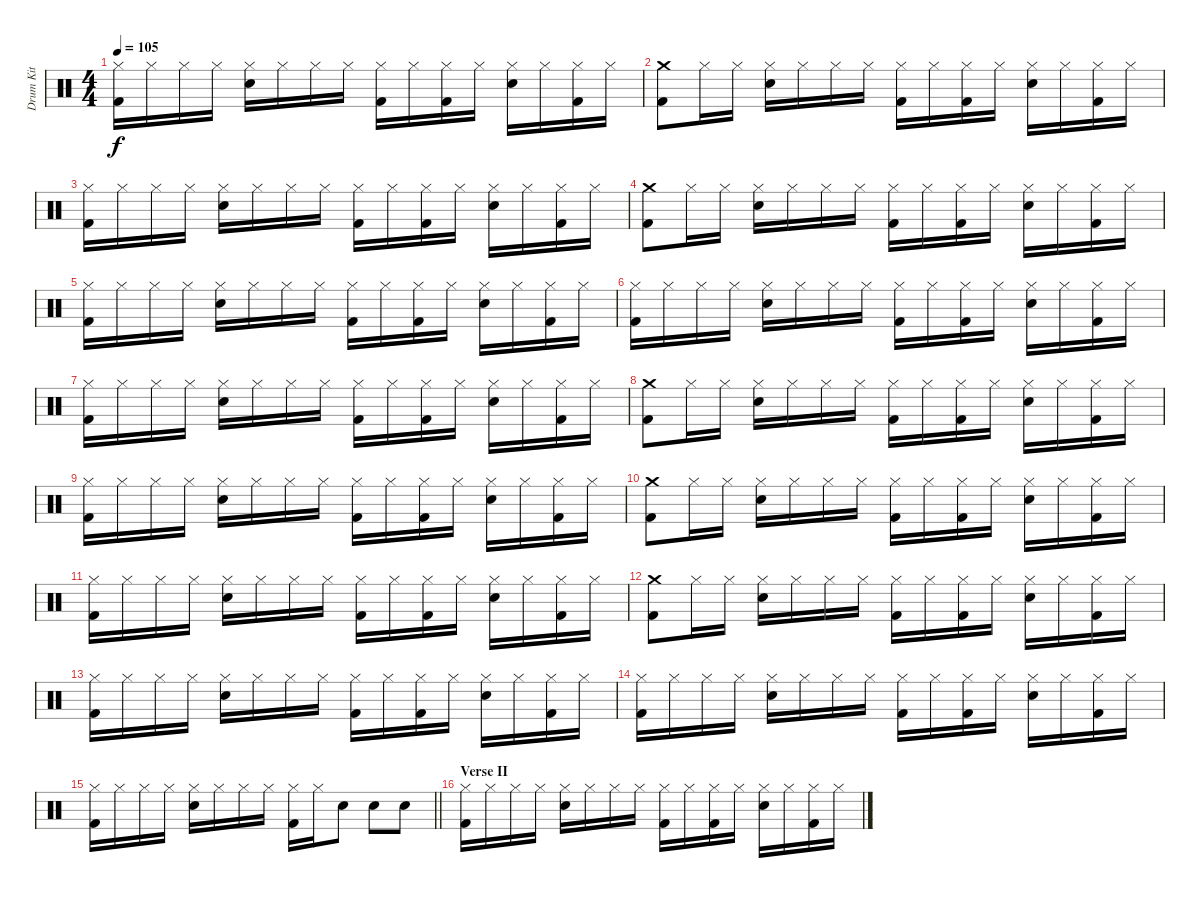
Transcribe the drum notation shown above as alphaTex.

\track ("Drum Kit" "Drum Kit") {instrument percussion}
\staff {score}
\articulation defaults
\ts (4 4)
\tempo 105
\clef neutral
\ks c
("Hi-Hat (closed)" "Kick (hit) 2").16{dy f} "Hi-Hat (closed)".16 "Hi-Hat (closed)".16 "Hi-Hat (closed)".16 ("Hi-Hat (closed)" "Electric Snare (hit)").16 "Hi-Hat (closed)".16 "Hi-Hat (closed)".16 "Hi-Hat (closed)".16 ("Hi-Hat (closed)" "Kick (hit) 2").16 "Hi-Hat (closed)".16 ("Hi-Hat (closed)" "Kick (hit) 2").16 "Hi-Hat (closed)".16 ("Hi-Hat (closed)" "Electric Snare (hit)").16 "Hi-Hat (closed)".16 ("Hi-Hat (closed)" "Kick (hit) 2").16 "Hi-Hat (closed)".16 |
("Crash medium (hit)" "Kick (hit) 2").8 "Hi-Hat (closed)".16 "Hi-Hat (closed)".16 ("Hi-Hat (closed)" "Electric Snare (hit)").16 "Hi-Hat (closed)".16 "Hi-Hat (closed)".16 "Hi-Hat (closed)".16 ("Hi-Hat (closed)" "Kick (hit) 2").16 "Hi-Hat (closed)".16 ("Hi-Hat (closed)" "Kick (hit) 2").16 "Hi-Hat (closed)".16 ("Hi-Hat (closed)" "Electric Snare (hit)").16 "Hi-Hat (closed)".16 ("Hi-Hat (closed)" "Kick (hit) 2").16 "Hi-Hat (closed)".16 |
("Hi-Hat (closed)" "Kick (hit) 2").16 "Hi-Hat (closed)".16 "Hi-Hat (closed)".16 "Hi-Hat (closed)".16 ("Hi-Hat (closed)" "Electric Snare (hit)").16 "Hi-Hat (closed)".16 "Hi-Hat (closed)".16 "Hi-Hat (closed)".16 ("Hi-Hat (closed)" "Kick (hit) 2").16 "Hi-Hat (closed)".16 ("Hi-Hat (closed)" "Kick (hit) 2").16 "Hi-Hat (closed)".16 ("Hi-Hat (closed)" "Electric Snare (hit)").16 "Hi-Hat (closed)".16 ("Hi-Hat (closed)" "Kick (hit) 2").16 "Hi-Hat (closed)".16 |
("Crash medium (hit)" "Kick (hit) 2").8 "Hi-Hat (closed)".16 "Hi-Hat (closed)".16 ("Hi-Hat (closed)" "Electric Snare (hit)").16 "Hi-Hat (closed)".16 "Hi-Hat (closed)".16 "Hi-Hat (closed)".16 ("Hi-Hat (closed)" "Kick (hit) 2").16 "Hi-Hat (closed)".16 ("Hi-Hat (closed)" "Kick (hit) 2").16 "Hi-Hat (closed)".16 ("Hi-Hat (closed)" "Electric Snare (hit)").16 "Hi-Hat (closed)".16 ("Hi-Hat (closed)" "Kick (hit) 2").16 "Hi-Hat (closed)".16 |
("Hi-Hat (closed)" "Kick (hit) 2").16 "Hi-Hat (closed)".16 "Hi-Hat (closed)".16 "Hi-Hat (closed)".16 ("Hi-Hat (closed)" "Electric Snare (hit)").16 "Hi-Hat (closed)".16 "Hi-Hat (closed)".16 "Hi-Hat (closed)".16 ("Hi-Hat (closed)" "Kick (hit) 2").16 "Hi-Hat (closed)".16 ("Hi-Hat (closed)" "Kick (hit) 2").16 "Hi-Hat (closed)".16 ("Hi-Hat (closed)" "Electric Snare (hit)").16 "Hi-Hat (closed)".16 ("Hi-Hat (closed)" "Kick (hit) 2").16 "Hi-Hat (closed)".16 |
("Hi-Hat (closed)" "Kick (hit) 2").16 "Hi-Hat (closed)".16 "Hi-Hat (closed)".16 "Hi-Hat (closed)".16 ("Hi-Hat (closed)" "Electric Snare (hit)").16 "Hi-Hat (closed)".16 "Hi-Hat (closed)".16 "Hi-Hat (closed)".16 ("Hi-Hat (closed)" "Kick (hit) 2").16 "Hi-Hat (closed)".16 ("Hi-Hat (closed)" "Kick (hit) 2").16 "Hi-Hat (closed)".16 ("Hi-Hat (closed)" "Electric Snare (hit)").16 "Hi-Hat (closed)".16 ("Hi-Hat (closed)" "Kick (hit) 2").16 "Hi-Hat (closed)".16 |
("Hi-Hat (closed)" "Kick (hit) 2").16 "Hi-Hat (closed)".16 "Hi-Hat (closed)".16 "Hi-Hat (closed)".16 ("Hi-Hat (closed)" "Electric Snare (hit)").16 "Hi-Hat (closed)".16 "Hi-Hat (closed)".16 "Hi-Hat (closed)".16 ("Hi-Hat (closed)" "Kick (hit) 2").16 "Hi-Hat (closed)".16 ("Hi-Hat (closed)" "Kick (hit) 2").16 "Hi-Hat (closed)".16 ("Hi-Hat (closed)" "Electric Snare (hit)").16 "Hi-Hat (closed)".16 ("Hi-Hat (closed)" "Kick (hit) 2").16 "Hi-Hat (closed)".16 |
("Crash medium (hit)" "Kick (hit) 2").8 "Hi-Hat (closed)".16 "Hi-Hat (closed)".16 ("Hi-Hat (closed)" "Electric Snare (hit)").16 "Hi-Hat (closed)".16 "Hi-Hat (closed)".16 "Hi-Hat (closed)".16 ("Hi-Hat (closed)" "Kick (hit) 2").16 "Hi-Hat (closed)".16 ("Hi-Hat (closed)" "Kick (hit) 2").16 "Hi-Hat (closed)".16 ("Hi-Hat (closed)" "Electric Snare (hit)").16 "Hi-Hat (closed)".16 ("Hi-Hat (closed)" "Kick (hit) 2").16 "Hi-Hat (closed)".16 |
("Hi-Hat (closed)" "Kick (hit) 2").16 "Hi-Hat (closed)".16 "Hi-Hat (closed)".16 "Hi-Hat (closed)".16 ("Hi-Hat (closed)" "Electric Snare (hit)").16 "Hi-Hat (closed)".16 "Hi-Hat (closed)".16 "Hi-Hat (closed)".16 ("Hi-Hat (closed)" "Kick (hit) 2").16 "Hi-Hat (closed)".16 ("Hi-Hat (closed)" "Kick (hit) 2").16 "Hi-Hat (closed)".16 ("Hi-Hat (closed)" "Electric Snare (hit)").16 "Hi-Hat (closed)".16 ("Hi-Hat (closed)" "Kick (hit) 2").16 "Hi-Hat (closed)".16 |
("Crash medium (hit)" "Kick (hit) 2").8 "Hi-Hat (closed)".16 "Hi-Hat (closed)".16 ("Hi-Hat (closed)" "Electric Snare (hit)").16 "Hi-Hat (closed)".16 "Hi-Hat (closed)".16 "Hi-Hat (closed)".16 ("Hi-Hat (closed)" "Kick (hit) 2").16 "Hi-Hat (closed)".16 ("Hi-Hat (closed)" "Kick (hit) 2").16 "Hi-Hat (closed)".16 ("Hi-Hat (closed)" "Electric Snare (hit)").16 "Hi-Hat (closed)".16 ("Hi-Hat (closed)" "Kick (hit) 2").16 "Hi-Hat (closed)".16 |
("Hi-Hat (closed)" "Kick (hit) 2").16 "Hi-Hat (closed)".16 "Hi-Hat (closed)".16 "Hi-Hat (closed)".16 ("Hi-Hat (closed)" "Electric Snare (hit)").16 "Hi-Hat (closed)".16 "Hi-Hat (closed)".16 "Hi-Hat (closed)".16 ("Hi-Hat (closed)" "Kick (hit) 2").16 "Hi-Hat (closed)".16 ("Hi-Hat (closed)" "Kick (hit) 2").16 "Hi-Hat (closed)".16 ("Hi-Hat (closed)" "Electric Snare (hit)").16 "Hi-Hat (closed)".16 ("Hi-Hat (closed)" "Kick (hit) 2").16 "Hi-Hat (closed)".16 |
("Crash medium (hit)" "Kick (hit) 2").8 "Hi-Hat (closed)".16 "Hi-Hat (closed)".16 ("Hi-Hat (closed)" "Electric Snare (hit)").16 "Hi-Hat (closed)".16 "Hi-Hat (closed)".16 "Hi-Hat (closed)".16 ("Hi-Hat (closed)" "Kick (hit) 2").16 "Hi-Hat (closed)".16 ("Hi-Hat (closed)" "Kick (hit) 2").16 "Hi-Hat (closed)".16 ("Hi-Hat (closed)" "Electric Snare (hit)").16 "Hi-Hat (closed)".16 ("Hi-Hat (closed)" "Kick (hit) 2").16 "Hi-Hat (closed)".16 |
("Hi-Hat (closed)" "Kick (hit) 2").16 "Hi-Hat (closed)".16 "Hi-Hat (closed)".16 "Hi-Hat (closed)".16 ("Hi-Hat (closed)" "Electric Snare (hit)").16 "Hi-Hat (closed)".16 "Hi-Hat (closed)".16 "Hi-Hat (closed)".16 ("Hi-Hat (closed)" "Kick (hit) 2").16 "Hi-Hat (closed)".16 ("Hi-Hat (closed)" "Kick (hit) 2").16 "Hi-Hat (closed)".16 ("Hi-Hat (closed)" "Electric Snare (hit)").16 "Hi-Hat (closed)".16 ("Hi-Hat (closed)" "Kick (hit) 2").16 "Hi-Hat (closed)".16 |
("Hi-Hat (closed)" "Kick (hit) 2").16 "Hi-Hat (closed)".16 "Hi-Hat (closed)".16 "Hi-Hat (closed)".16 ("Hi-Hat (closed)" "Electric Snare (hit)").16 "Hi-Hat (closed)".16 "Hi-Hat (closed)".16 "Hi-Hat (closed)".16 ("Hi-Hat (closed)" "Kick (hit) 2").16 "Hi-Hat (closed)".16 ("Hi-Hat (closed)" "Kick (hit) 2").16 "Hi-Hat (closed)".16 ("Hi-Hat (closed)" "Electric Snare (hit)").16 "Hi-Hat (closed)".16 ("Hi-Hat (closed)" "Kick (hit) 2").16 "Hi-Hat (closed)".16 |
\barLineRight lightlight
("Hi-Hat (closed)" "Kick (hit) 2").16 "Hi-Hat (closed)".16 "Hi-Hat (closed)".16 "Hi-Hat (closed)".16 ("Hi-Hat (closed)" "Electric Snare (hit)").16 "Hi-Hat (closed)".16 "Hi-Hat (closed)".16 "Hi-Hat (closed)".16 ("Hi-Hat (closed)" "Kick (hit) 2").16 "Hi-Hat (closed)".16 "Electric Snare (hit)".8 "Electric Snare (hit)".8 "Electric Snare (hit)".8 |
\section ("" "Verse II")
("Hi-Hat (closed)" "Kick (hit) 2").16{volume 8} "Hi-Hat (closed)".16 "Hi-Hat (closed)".16 "Hi-Hat (closed)".16 ("Hi-Hat (closed)" "Electric Snare (hit)").16 "Hi-Hat (closed)".16 "Hi-Hat (closed)".16 "Hi-Hat (closed)".16 ("Hi-Hat (closed)" "Kick (hit) 2").16 "Hi-Hat (closed)".16 ("Hi-Hat (closed)" "Kick (hit) 2").16 "Hi-Hat (closed)".16 ("Hi-Hat (closed)" "Electric Snare (hit)").16 "Hi-Hat (closed)".16 ("Hi-Hat (closed)" "Kick (hit) 2").16 "Hi-Hat (closed)".16
